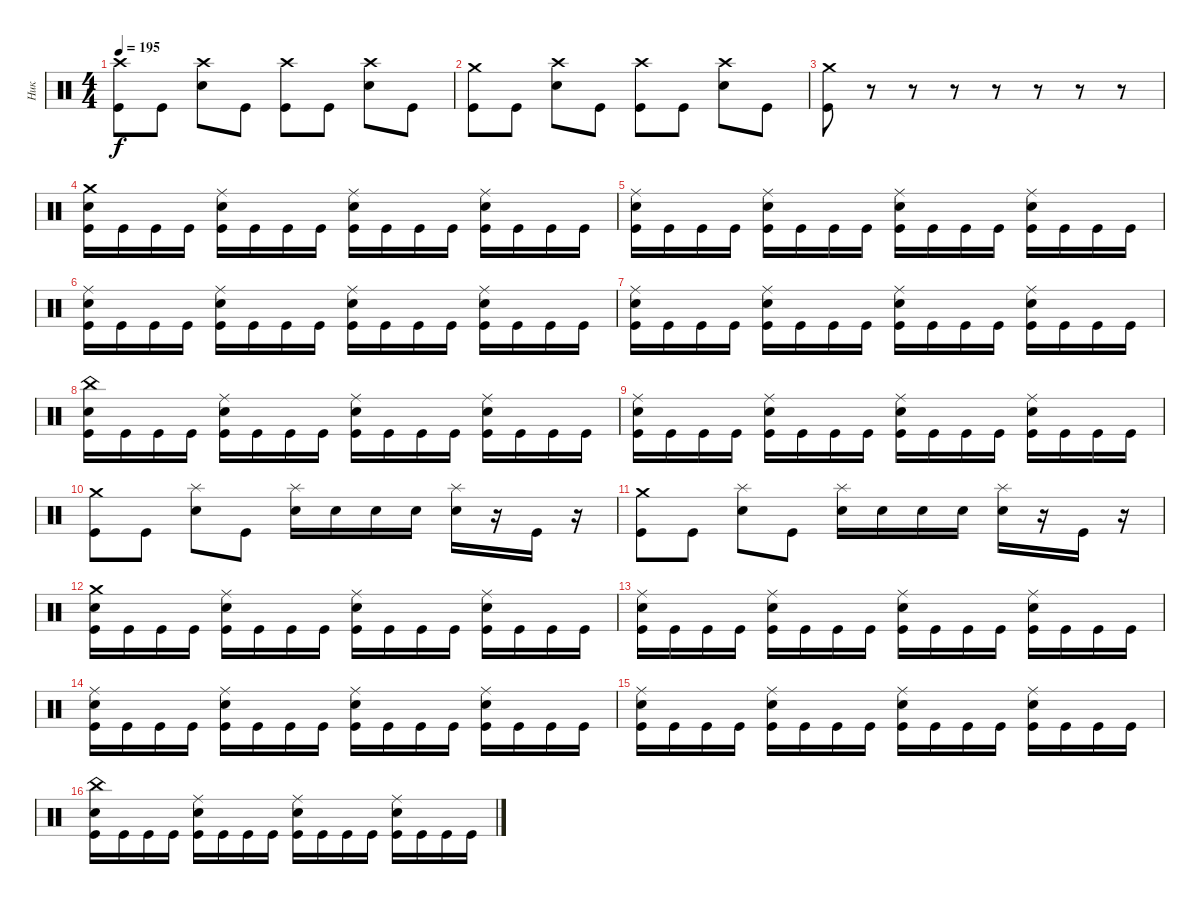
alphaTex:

\track ("Ник" "Ник") {instrument percussion}
\staff {score}
\articulation defaults
\ts (4 4)
\tempo 195
\clef neutral
\ks c
("Crash high (hit)" "Kick (hit)").8{dy f} "Kick (hit)".8 ("Crash high (hit)" "Snare (hit) 2").8 "Kick (hit)".8 ("Crash high (hit)" "Kick (hit)").8 "Kick (hit)".8 ("Crash high (hit)" "Snare (hit) 2").8 "Kick (hit)".8 |
("Crash medium (hit)" "Kick (hit)").8 "Kick (hit)".8 ("Crash high (hit)" "Snare (hit) 2").8 "Kick (hit)".8 ("Crash high (hit)" "Kick (hit)").8 "Kick (hit)".8 ("Crash high (hit)" "Snare (hit) 2").8 "Kick (hit)".8 |
("Crash medium (hit)" "Kick (hit)").8 r.8 r.8 r.8 r.8 r.8 r.8 r.8 |
("Crash medium (hit)" "Snare (hit) 2" "Kick (hit)").16 "Kick (hit)".16 "Kick (hit)".16 "Kick (hit)".16 ("Ride (middle)" "Snare (hit) 2" "Kick (hit)").16 "Kick (hit)".16 "Kick (hit)".16 "Kick (hit)".16 ("Ride (middle)" "Snare (hit) 2" "Kick (hit)").16 "Kick (hit)".16 "Kick (hit)".16 "Kick (hit)".16 ("Ride (middle)" "Snare (hit) 2" "Kick (hit)").16 "Kick (hit)".16 "Kick (hit)".16 "Kick (hit)".16 |
("Ride (middle)" "Snare (hit) 2" "Kick (hit)").16 "Kick (hit)".16 "Kick (hit)".16 "Kick (hit)".16 ("Ride (middle)" "Snare (hit) 2" "Kick (hit)").16 "Kick (hit)".16 "Kick (hit)".16 "Kick (hit)".16 ("Ride (middle)" "Snare (hit) 2" "Kick (hit)").16 "Kick (hit)".16 "Kick (hit)".16 "Kick (hit)".16 ("Ride (middle)" "Snare (hit) 2" "Kick (hit)").16 "Kick (hit)".16 "Kick (hit)".16 "Kick (hit)".16 |
("Ride (middle)" "Snare (hit) 2" "Kick (hit)").16 "Kick (hit)".16 "Kick (hit)".16 "Kick (hit)".16 ("Ride (middle)" "Snare (hit) 2" "Kick (hit)").16 "Kick (hit)".16 "Kick (hit)".16 "Kick (hit)".16 ("Ride (middle)" "Snare (hit) 2" "Kick (hit)").16 "Kick (hit)".16 "Kick (hit)".16 "Kick (hit)".16 ("Ride (middle)" "Snare (hit) 2" "Kick (hit)").16 "Kick (hit)".16 "Kick (hit)".16 "Kick (hit)".16 |
("Ride (middle)" "Snare (hit) 2" "Kick (hit)").16 "Kick (hit)".16 "Kick (hit)".16 "Kick (hit)".16 ("Ride (middle)" "Snare (hit) 2" "Kick (hit)").16 "Kick (hit)".16 "Kick (hit)".16 "Kick (hit)".16 ("Ride (middle)" "Snare (hit) 2" "Kick (hit)").16 "Kick (hit)".16 "Kick (hit)".16 "Kick (hit)".16 ("Ride (middle)" "Snare (hit) 2" "Kick (hit)").16 "Kick (hit)".16 "Kick (hit)".16 "Kick (hit)".16 |
("China (hit)" "Snare (hit) 2" "Kick (hit)").16 "Kick (hit)".16 "Kick (hit)".16 "Kick (hit)".16 ("Ride (middle)" "Snare (hit) 2" "Kick (hit)").16 "Kick (hit)".16 "Kick (hit)".16 "Kick (hit)".16 ("Ride (middle)" "Snare (hit) 2" "Kick (hit)").16 "Kick (hit)".16 "Kick (hit)".16 "Kick (hit)".16 ("Ride (middle)" "Snare (hit) 2" "Kick (hit)").16 "Kick (hit)".16 "Kick (hit)".16 "Kick (hit)".16 |
("Ride (middle)" "Snare (hit) 2" "Kick (hit)").16 "Kick (hit)".16 "Kick (hit)".16 "Kick (hit)".16 ("Ride (middle)" "Snare (hit) 2" "Kick (hit)").16 "Kick (hit)".16 "Kick (hit)".16 "Kick (hit)".16 ("Ride (middle)" "Snare (hit) 2" "Kick (hit)").16 "Kick (hit)".16 "Kick (hit)".16 "Kick (hit)".16 ("Ride (middle)" "Snare (hit) 2" "Kick (hit)").16 "Kick (hit)".16 "Kick (hit)".16 "Kick (hit)".16 |
("Crash medium (hit)" "Kick (hit)").8 "Kick (hit)".8 ("Splash (hit)" "Snare (hit) 2").8 "Kick (hit)".8 ("Splash (hit)" "Snare (hit) 2").16 "Snare (hit) 2".16 "Snare (hit) 2".16 "Snare (hit) 2".16 ("Splash (hit)" "Snare (hit) 2").16 r.16 "Kick (hit)".16 r.16 |
("Crash medium (hit)" "Kick (hit)").8 "Kick (hit)".8 ("Splash (hit)" "Snare (hit) 2").8 "Kick (hit)".8 ("Splash (hit)" "Snare (hit) 2").16 "Snare (hit) 2".16 "Snare (hit) 2".16 "Snare (hit) 2".16 ("Splash (hit)" "Snare (hit) 2").16 r.16 "Kick (hit)".16 r.16 |
("Crash medium (hit)" "Snare (hit) 2" "Kick (hit)").16 "Kick (hit)".16 "Kick (hit)".16 "Kick (hit)".16 ("Ride (middle)" "Snare (hit) 2" "Kick (hit)").16 "Kick (hit)".16 "Kick (hit)".16 "Kick (hit)".16 ("Ride (middle)" "Snare (hit) 2" "Kick (hit)").16 "Kick (hit)".16 "Kick (hit)".16 "Kick (hit)".16 ("Ride (middle)" "Snare (hit) 2" "Kick (hit)").16 "Kick (hit)".16 "Kick (hit)".16 "Kick (hit)".16 |
("Ride (middle)" "Snare (hit) 2" "Kick (hit)").16 "Kick (hit)".16 "Kick (hit)".16 "Kick (hit)".16 ("Ride (middle)" "Snare (hit) 2" "Kick (hit)").16 "Kick (hit)".16 "Kick (hit)".16 "Kick (hit)".16 ("Ride (middle)" "Snare (hit) 2" "Kick (hit)").16 "Kick (hit)".16 "Kick (hit)".16 "Kick (hit)".16 ("Ride (middle)" "Snare (hit) 2" "Kick (hit)").16 "Kick (hit)".16 "Kick (hit)".16 "Kick (hit)".16 |
("Ride (middle)" "Snare (hit) 2" "Kick (hit)").16 "Kick (hit)".16 "Kick (hit)".16 "Kick (hit)".16 ("Ride (middle)" "Snare (hit) 2" "Kick (hit)").16 "Kick (hit)".16 "Kick (hit)".16 "Kick (hit)".16 ("Ride (middle)" "Snare (hit) 2" "Kick (hit)").16 "Kick (hit)".16 "Kick (hit)".16 "Kick (hit)".16 ("Ride (middle)" "Snare (hit) 2" "Kick (hit)").16 "Kick (hit)".16 "Kick (hit)".16 "Kick (hit)".16 |
("Ride (middle)" "Snare (hit) 2" "Kick (hit)").16 "Kick (hit)".16 "Kick (hit)".16 "Kick (hit)".16 ("Ride (middle)" "Snare (hit) 2" "Kick (hit)").16 "Kick (hit)".16 "Kick (hit)".16 "Kick (hit)".16 ("Ride (middle)" "Snare (hit) 2" "Kick (hit)").16 "Kick (hit)".16 "Kick (hit)".16 "Kick (hit)".16 ("Ride (middle)" "Snare (hit) 2" "Kick (hit)").16 "Kick (hit)".16 "Kick (hit)".16 "Kick (hit)".16 |
("China (hit)" "Snare (hit) 2" "Kick (hit)").16 "Kick (hit)".16 "Kick (hit)".16 "Kick (hit)".16 ("Ride (middle)" "Snare (hit) 2" "Kick (hit)").16 "Kick (hit)".16 "Kick (hit)".16 "Kick (hit)".16 ("Ride (middle)" "Snare (hit) 2" "Kick (hit)").16 "Kick (hit)".16 "Kick (hit)".16 "Kick (hit)".16 ("Ride (middle)" "Snare (hit) 2" "Kick (hit)").16 "Kick (hit)".16 "Kick (hit)".16 "Kick (hit)".16
